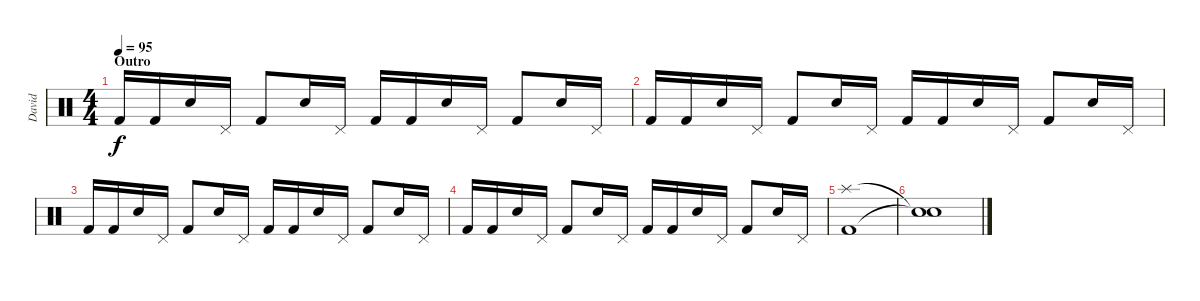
\track ("David" "David") {instrument percussion}
\staff {score}
\articulation defaults
\ts (4 4)
\section ("" "Outro")
\tempo 95
\clef neutral
\ks c "Kick (hit) 2".16{dy f} "Kick (hit) 2".16 "Electric Snare (hit)".16 "Pedal Hi-Hat (hit)".16 "Kick (hit) 2".8 "Electric Snare (hit)".16 "Pedal Hi-Hat (hit)".16 "Kick (hit) 2".16 "Kick (hit) 2".16 "Electric Snare (hit)".16 "Pedal Hi-Hat (hit)".16 "Kick (hit) 2".8 "Electric Snare (hit)".16 "Pedal Hi-Hat (hit)".16
|
"Kick (hit) 2".16 "Kick (hit) 2".16 "Electric Snare (hit)".16 "Pedal Hi-Hat (hit)".16 "Kick (hit) 2".8 "Electric Snare (hit)".16 "Pedal Hi-Hat (hit)".16 "Kick (hit) 2".16 "Kick (hit) 2".16 "Electric Snare (hit)".16 "Pedal Hi-Hat (hit)".16 "Kick (hit) 2".8 "Electric Snare (hit)".16 "Pedal Hi-Hat (hit)".16 |
"Kick (hit) 2".16 "Kick (hit) 2".16 "Electric Snare (hit)".16 "Pedal Hi-Hat (hit)".16 "Kick (hit) 2".8 "Electric Snare (hit)".16 "Pedal Hi-Hat (hit)".16 "Kick (hit) 2".16 "Kick (hit) 2".16 "Electric Snare (hit)".16 "Pedal Hi-Hat (hit)".16 "Kick (hit) 2".8 "Electric Snare (hit)".16 "Pedal Hi-Hat (hit)".16 |
"Kick (hit) 2".16 "Kick (hit) 2".16 "Electric Snare (hit)".16 "Pedal Hi-Hat (hit)".16 "Kick (hit) 2".8 "Electric Snare (hit)".16 "Pedal Hi-Hat (hit)".16 "Kick (hit) 2".16 "Kick (hit) 2".16 "Electric Snare (hit)".16 "Pedal Hi-Hat (hit)".16 "Kick (hit) 2".8 "Electric Snare (hit)".16 "Pedal Hi-Hat (hit)".16 |
("Splash (hit)" "Kick (hit) 2").1 |
("Snare (hit)"{t} "Snare (hit)"{t}).1
